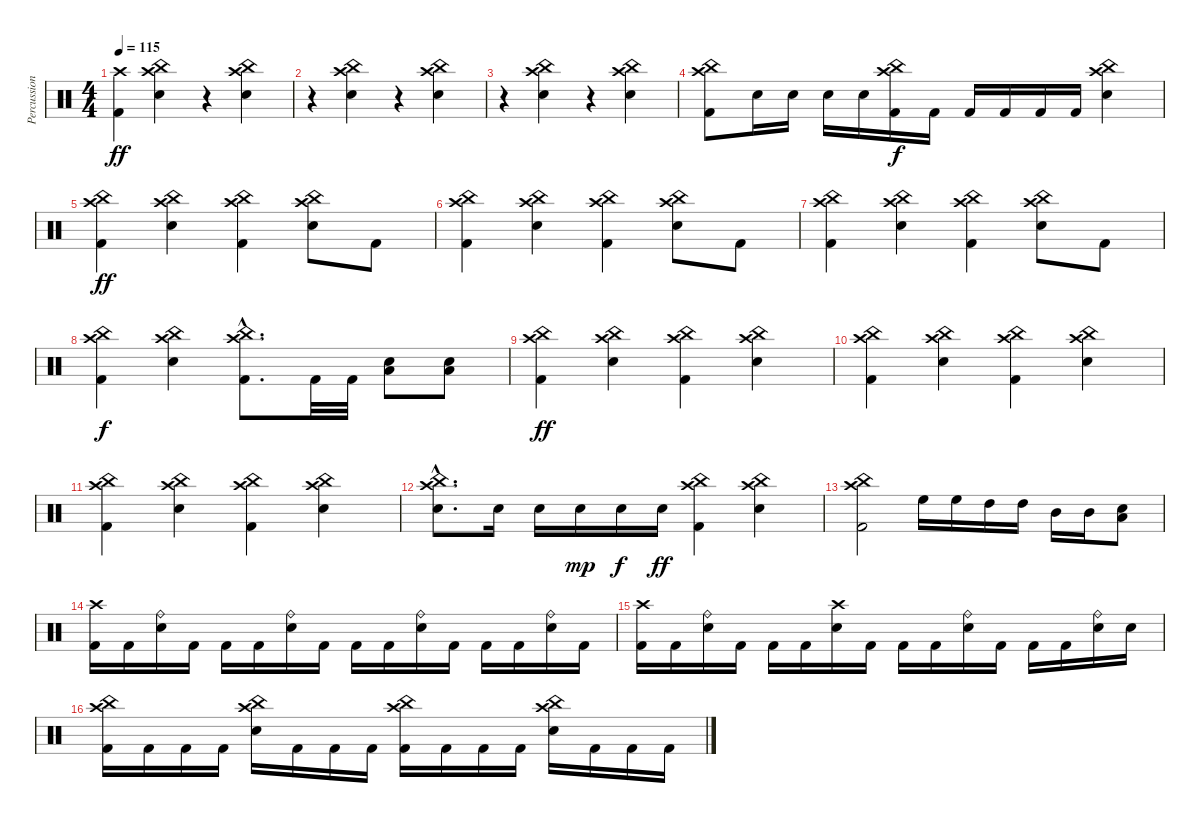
\track ("Percussion" "Percussion") {instrument percussion}
\staff {score}
\articulation defaults
\ts (4 4)
\tempo 115
\clef neutral
\ks c
("Kick (hit) 2" "Crash high (hit)").4{dy ff} ("Electric Snare (hit)" "Crash high (hit)" "China (hit)").4 r.4 ("Electric Snare (hit)" "Crash high (hit)" "China (hit)").4 |
r.4 ("Electric Snare (hit)" "Crash high (hit)" "China (hit)").4 r.4 ("Electric Snare (hit)" "Crash high (hit)" "China (hit)").4 |
r.4 ("Electric Snare (hit)" "Crash high (hit)" "China (hit)").4 r.4 ("Electric Snare (hit)" "Crash high (hit)" "China (hit)").4 |
("Kick (hit) 2" "Crash high (hit)" "China (hit)").8 "Electric Snare (hit)".16 "Electric Snare (hit)".16 "Electric Snare (hit)".16 "Electric Snare (hit)".16 ("Kick (hit) 2" "Crash high (hit)" "China (hit)").16{dy f} "Kick (hit) 2".16 "Kick (hit) 2".16 "Kick (hit) 2".16 "Kick (hit) 2".16 "Kick (hit) 2".16 ("Electric Snare (hit)" "Crash high (hit)" "China (hit)").4 |
("Kick (hit) 2" "Crash high (hit)" "China (hit)").4{dy ff} ("Electric Snare (hit)" "Crash high (hit)" "China (hit)").4 ("Kick (hit) 2" "Crash high (hit)" "China (hit)").4 ("Electric Snare (hit)" "Crash high (hit)" "China (hit)").8 "Kick (hit) 2".8 |
("Kick (hit) 2" "Crash high (hit)" "China (hit)").4 ("Electric Snare (hit)" "Crash high (hit)" "China (hit)").4 ("Kick (hit) 2" "Crash high (hit)" "China (hit)").4 ("Electric Snare (hit)" "Crash high (hit)" "China (hit)").8 "Kick (hit) 2".8 |
("Kick (hit) 2" "Crash high (hit)" "China (hit)").4 ("Electric Snare (hit)" "Crash high (hit)" "China (hit)").4 ("Kick (hit) 2" "Crash high (hit)" "China (hit)").4 ("Electric Snare (hit)" "Crash high (hit)" "China (hit)").8 "Kick (hit) 2".8 |
("Kick (hit) 2" "Crash high (hit)" "China (hit)").4{dy f} ("Electric Snare (hit)" "Crash high (hit)" "China (hit)").4 ("Kick (hit) 2"{hac} "Crash high (hit)"{hac} "China (hit)"{hac}).8{d} "Kick (hit) 2".32 "Kick (hit) 2".32 ("Electric Snare (hit)" "Low Tom (hit)").8 ("Electric Snare (hit)" "Low Tom (hit)").8 |
("Kick (hit) 2" "Crash high (hit)" "China (hit)").4{dy ff} ("Electric Snare (hit)" "Crash high (hit)" "China (hit)").4 ("Kick (hit) 2" "Crash high (hit)" "China (hit)").4 ("Electric Snare (hit)" "Crash high (hit)" "China (hit)").4 |
("Kick (hit) 2" "Crash high (hit)" "China (hit)").4 ("Electric Snare (hit)" "Crash high (hit)" "China (hit)").4 ("Kick (hit) 2" "Crash high (hit)" "China (hit)").4 ("Electric Snare (hit)" "Crash high (hit)" "China (hit)").4 |
("Kick (hit) 2" "Crash high (hit)" "China (hit)").4 ("Electric Snare (hit)" "Crash high (hit)" "China (hit)").4 ("Kick (hit) 2" "Crash high (hit)" "China (hit)").4 ("Electric Snare (hit)" "Crash high (hit)" "China (hit)").4 |
("Electric Snare (hit)"{hac} "Crash high (hit)"{hac} "China (hit)"{hac}).8{d} "Electric Snare (hit)".16 "Electric Snare (hit)".16 "Electric Snare (hit)".16{dy mp} "Electric Snare (hit)".16{dy f} "Electric Snare (hit)".16{dy ff} ("Kick (hit) 2" "Crash high (hit)" "China (hit)").4 ("Electric Snare (hit)" "Crash high (hit)" "China (hit)").4 |
("Kick (hit) 2" "Crash high (hit)" "China (hit)").2 "High Floor Tom (hit)".16 "High Floor Tom (hit)".16 "High Tom (hit)".16 "High Tom (hit)".16 "Mid Tom (hit)".16 "Mid Tom (hit)".16 ("Electric Snare (hit)" "Low Tom (hit)").8 |
("Kick (hit) 2" "Crash high (hit)").16 "Kick (hit) 2".16 ("Electric Snare (hit)" "Ride (bell)").16 "Kick (hit) 2".16 "Kick (hit) 2".16 "Kick (hit) 2".16 ("Electric Snare (hit)" "Ride (bell)").16 "Kick (hit) 2".16 "Kick (hit) 2".16 "Kick (hit) 2".16 ("Electric Snare (hit)" "Ride (bell)").16 "Kick (hit) 2".16 "Kick (hit) 2".16 "Kick (hit) 2".16 ("Electric Snare (hit)" "Ride (bell)").16 "Kick (hit) 2".16 |
("Kick (hit) 2" "Crash high (hit)").16 "Kick (hit) 2".16 ("Electric Snare (hit)" "Ride (bell)").16 "Kick (hit) 2".16 "Kick (hit) 2".16 "Kick (hit) 2".16 ("Electric Snare (hit)" "Crash high (hit)").16 "Kick (hit) 2".16 "Kick (hit) 2".16 "Kick (hit) 2".16 ("Electric Snare (hit)" "Ride (bell)").16 "Kick (hit) 2".16 "Kick (hit) 2".16 "Kick (hit) 2".16 ("Electric Snare (hit)" "Ride (bell)").16 "Electric Snare (hit)".16 |
("Kick (hit) 2" "Crash high (hit)" "China (hit)").16 "Kick (hit) 2".16 "Kick (hit) 2".16 "Kick (hit) 2".16 ("Electric Snare (hit)" "Crash high (hit)" "China (hit)").16 "Kick (hit) 2".16 "Kick (hit) 2".16 "Kick (hit) 2".16 ("Kick (hit) 2" "Crash high (hit)" "China (hit)").16 "Kick (hit) 2".16 "Kick (hit) 2".16 "Kick (hit) 2".16 ("Electric Snare (hit)" "Crash high (hit)" "China (hit)").16 "Kick (hit) 2".16 "Kick (hit) 2".16 "Kick (hit) 2".16
